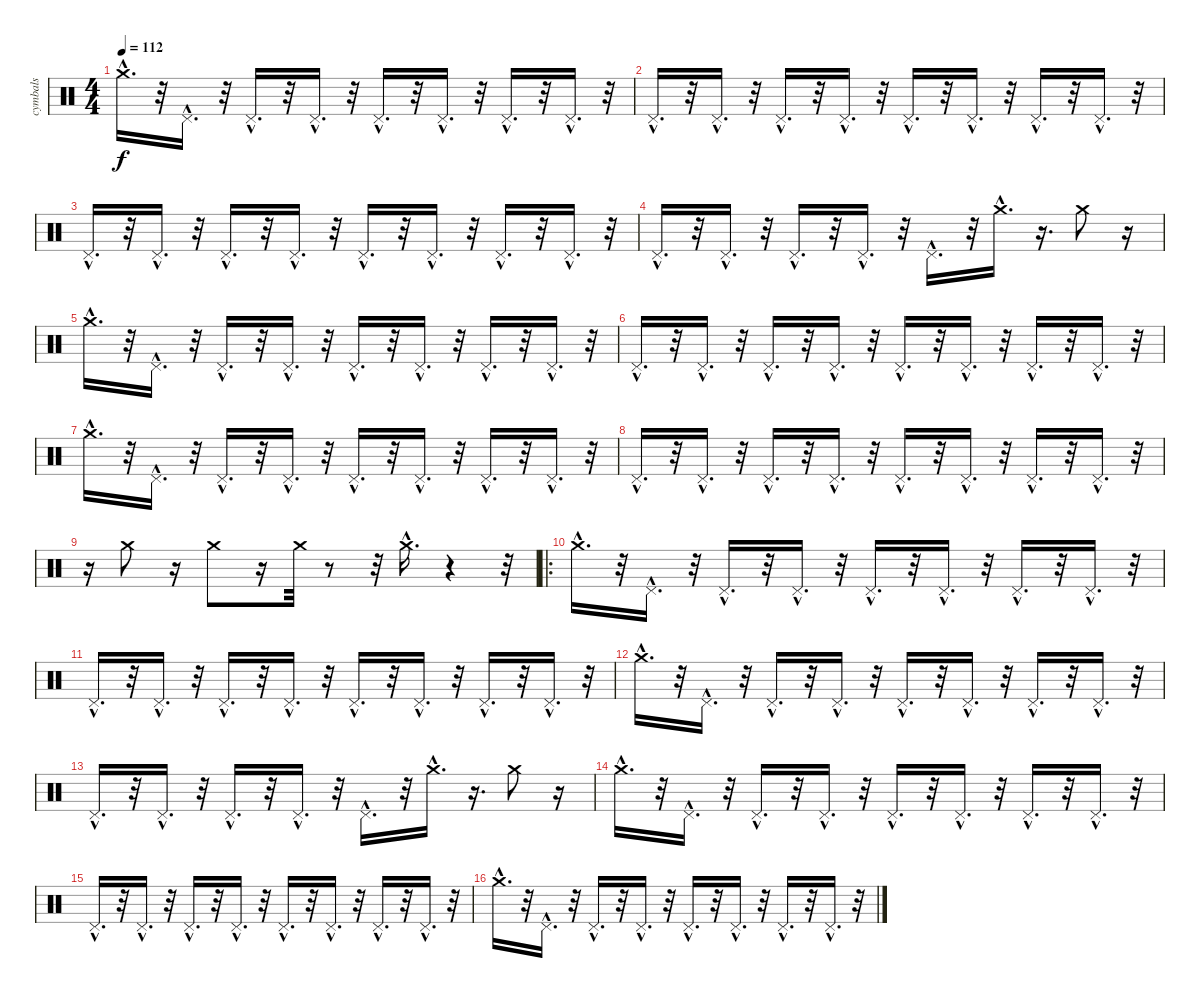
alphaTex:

\track ("cymbals" "cymbals") {instrument percussion}
\staff {score}
\articulation defaults
\ts (4 4)
\tempo 112
\clef neutral
\ks c "Crash medium (hit)"{hac}.16{d dy f}
r.32 "Pedal Hi-Hat (hit)"{hac}.16{d} r.32 "Pedal Hi-Hat (hit)"{hac}.16{d} r.32 "Pedal Hi-Hat (hit)"{hac}.16{d} r.32 "Pedal Hi-Hat (hit)"{hac}.16{d} r.32 "Pedal Hi-Hat (hit)"{hac}.16{d} r.32 "Pedal Hi-Hat (hit)"{hac}.16{d} r.32 "Pedal Hi-Hat (hit)"{hac}.16{d} r.32 |
"Pedal Hi-Hat (hit)"{hac}.16{d} r.32 "Pedal Hi-Hat (hit)"{hac}.16{d} r.32 "Pedal Hi-Hat (hit)"{hac}.16{d} r.32 "Pedal Hi-Hat (hit)"{hac}.16{d} r.32 "Pedal Hi-Hat (hit)"{hac}.16{d} r.32 "Pedal Hi-Hat (hit)"{hac}.16{d} r.32 "Pedal Hi-Hat (hit)"{hac}.16{d} r.32 "Pedal Hi-Hat (hit)"{hac}.16{d} r.32 |
"Pedal Hi-Hat (hit)"{hac}.16{d} r.32 "Pedal Hi-Hat (hit)"{hac}.16{d} r.32 "Pedal Hi-Hat (hit)"{hac}.16{d} r.32 "Pedal Hi-Hat (hit)"{hac}.16{d} r.32 "Pedal Hi-Hat (hit)"{hac}.16{d} r.32 "Pedal Hi-Hat (hit)"{hac}.16{d} r.32 "Pedal Hi-Hat (hit)"{hac}.16{d} r.32 "Pedal Hi-Hat (hit)"{hac}.16{d} r.32 |
"Pedal Hi-Hat (hit)"{hac}.16{d} r.32 "Pedal Hi-Hat (hit)"{hac}.16{d} r.32 "Pedal Hi-Hat (hit)"{hac}.16{d} r.32 "Pedal Hi-Hat (hit)"{hac}.16{d} r.32 "Pedal Hi-Hat (hit)"{hac}.16{d} r.32 "Crash medium (hit)"{hac}.16{d} r.16{d} "Crash medium (hit)".8 r.16 |
"Crash medium (hit)"{hac}.16{d} r.32 "Pedal Hi-Hat (hit)"{hac}.16{d} r.32 "Pedal Hi-Hat (hit)"{hac}.16{d} r.32 "Pedal Hi-Hat (hit)"{hac}.16{d} r.32 "Pedal Hi-Hat (hit)"{hac}.16{d} r.32 "Pedal Hi-Hat (hit)"{hac}.16{d} r.32 "Pedal Hi-Hat (hit)"{hac}.16{d} r.32 "Pedal Hi-Hat (hit)"{hac}.16{d} r.32 |
"Pedal Hi-Hat (hit)"{hac}.16{d} r.32 "Pedal Hi-Hat (hit)"{hac}.16{d} r.32 "Pedal Hi-Hat (hit)"{hac}.16{d} r.32 "Pedal Hi-Hat (hit)"{hac}.16{d} r.32 "Pedal Hi-Hat (hit)"{hac}.16{d} r.32 "Pedal Hi-Hat (hit)"{hac}.16{d} r.32 "Pedal Hi-Hat (hit)"{hac}.16{d} r.32 "Pedal Hi-Hat (hit)"{hac}.16{d} r.32 |
"Crash medium (hit)"{hac}.16{d} r.32 "Pedal Hi-Hat (hit)"{hac}.16{d} r.32 "Pedal Hi-Hat (hit)"{hac}.16{d} r.32 "Pedal Hi-Hat (hit)"{hac}.16{d} r.32 "Pedal Hi-Hat (hit)"{hac}.16{d} r.32 "Pedal Hi-Hat (hit)"{hac}.16{d} r.32 "Pedal Hi-Hat (hit)"{hac}.16{d} r.32 "Pedal Hi-Hat (hit)"{hac}.16{d} r.32 |
"Pedal Hi-Hat (hit)"{hac}.16{d} r.32 "Pedal Hi-Hat (hit)"{hac}.16{d} r.32 "Pedal Hi-Hat (hit)"{hac}.16{d} r.32 "Pedal Hi-Hat (hit)"{hac}.16{d} r.32 "Pedal Hi-Hat (hit)"{hac}.16{d} r.32 "Pedal Hi-Hat (hit)"{hac}.16{d} r.32 "Pedal Hi-Hat (hit)"{hac}.16{d} r.32 "Pedal Hi-Hat (hit)"{hac}.16{d} r.32 |
r.16 "Crash medium (hit)".8 r.16 "Crash medium (hit)".8 r.16 "Crash medium (hit)".32 r.8 r.32 "Crash medium (hit)"{hac}.16{d} r.4 r.32 |
\ro "Crash medium (hit)"{hac}.16{d}
r.32 "Pedal Hi-Hat (hit)"{hac}.16{d} r.32 "Pedal Hi-Hat (hit)"{hac}.16{d} r.32 "Pedal Hi-Hat (hit)"{hac}.16{d} r.32 "Pedal Hi-Hat (hit)"{hac}.16{d} r.32 "Pedal Hi-Hat (hit)"{hac}.16{d} r.32 "Pedal Hi-Hat (hit)"{hac}.16{d} r.32 "Pedal Hi-Hat (hit)"{hac}.16{d} r.32 |
"Pedal Hi-Hat (hit)"{hac}.16{d} r.32 "Pedal Hi-Hat (hit)"{hac}.16{d} r.32 "Pedal Hi-Hat (hit)"{hac}.16{d} r.32 "Pedal Hi-Hat (hit)"{hac}.16{d} r.32 "Pedal Hi-Hat (hit)"{hac}.16{d} r.32 "Pedal Hi-Hat (hit)"{hac}.16{d} r.32 "Pedal Hi-Hat (hit)"{hac}.16{d} r.32 "Pedal Hi-Hat (hit)"{hac}.16{d} r.32 |
"Crash medium (hit)"{hac}.16{d} r.32 "Pedal Hi-Hat (hit)"{hac}.16{d} r.32 "Pedal Hi-Hat (hit)"{hac}.16{d} r.32 "Pedal Hi-Hat (hit)"{hac}.16{d} r.32 "Pedal Hi-Hat (hit)"{hac}.16{d} r.32 "Pedal Hi-Hat (hit)"{hac}.16{d} r.32 "Pedal Hi-Hat (hit)"{hac}.16{d} r.32 "Pedal Hi-Hat (hit)"{hac}.16{d} r.32 |
"Pedal Hi-Hat (hit)"{hac}.16{d} r.32 "Pedal Hi-Hat (hit)"{hac}.16{d} r.32 "Pedal Hi-Hat (hit)"{hac}.16{d} r.32 "Pedal Hi-Hat (hit)"{hac}.16{d} r.32 "Pedal Hi-Hat (hit)"{hac}.16{d} r.32 "Crash medium (hit)"{hac}.16{d} r.16{d} "Crash medium (hit)".8 r.16 |
"Crash medium (hit)"{hac}.16{d} r.32 "Pedal Hi-Hat (hit)"{hac}.16{d} r.32 "Pedal Hi-Hat (hit)"{hac}.16{d} r.32 "Pedal Hi-Hat (hit)"{hac}.16{d} r.32 "Pedal Hi-Hat (hit)"{hac}.16{d} r.32 "Pedal Hi-Hat (hit)"{hac}.16{d} r.32 "Pedal Hi-Hat (hit)"{hac}.16{d} r.32 "Pedal Hi-Hat (hit)"{hac}.16{d} r.32 |
"Pedal Hi-Hat (hit)"{hac}.16{d} r.32 "Pedal Hi-Hat (hit)"{hac}.16{d} r.32 "Pedal Hi-Hat (hit)"{hac}.16{d} r.32 "Pedal Hi-Hat (hit)"{hac}.16{d} r.32 "Pedal Hi-Hat (hit)"{hac}.16{d} r.32 "Pedal Hi-Hat (hit)"{hac}.16{d} r.32 "Pedal Hi-Hat (hit)"{hac}.16{d} r.32 "Pedal Hi-Hat (hit)"{hac}.16{d} r.32 |
"Crash medium (hit)"{hac}.16{d} r.32 "Pedal Hi-Hat (hit)"{hac}.16{d} r.32 "Pedal Hi-Hat (hit)"{hac}.16{d} r.32 "Pedal Hi-Hat (hit)"{hac}.16{d} r.32 "Pedal Hi-Hat (hit)"{hac}.16{d} r.32 "Pedal Hi-Hat (hit)"{hac}.16{d} r.32 "Pedal Hi-Hat (hit)"{hac}.16{d} r.32 "Pedal Hi-Hat (hit)"{hac}.16{d} r.32
